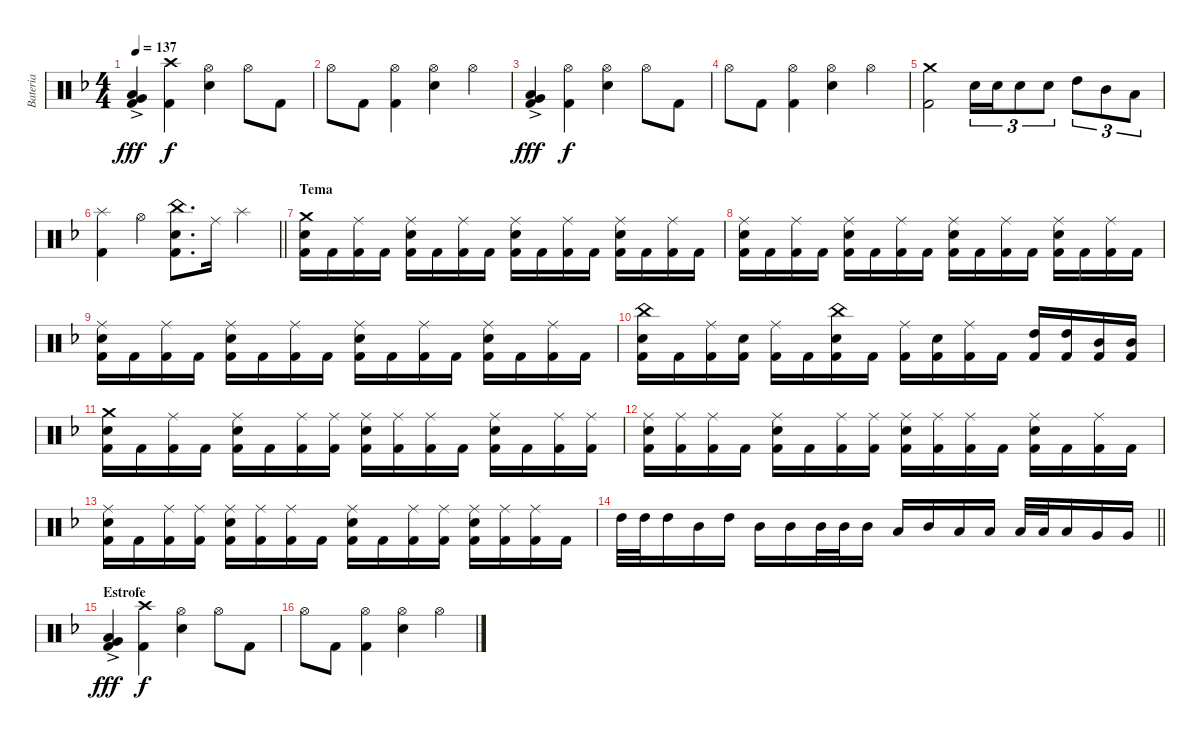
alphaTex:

\track ("Bateria" "Bateria") {instrument percussion}
\staff {score}
\articulation defaults
\ts (4 4)
\tempo 137
\clef neutral
\ks dminor
("Very Low Tom (hit)"{ac} "Low Tom (hit)"{ac} "Kick (hit) 2").4{dy fff} ("Crash high (hit)" "Kick (hit) 2").4{dy f} ("Hi-Hat (open)" "Electric Snare (hit)").4 "Hi-Hat (open)".8 "Kick (hit) 2".8 |
"Hi-Hat (open)".8 "Kick (hit) 2".8 ("Hi-Hat (open)" "Kick (hit) 2").4 ("Hi-Hat (open)" "Electric Snare (hit)").4 "Hi-Hat (open)".4 |
("Very Low Tom (hit)"{ac} "Low Tom (hit)"{ac} "Kick (hit) 2").4{dy fff} ("Hi-Hat (open)" "Kick (hit) 2").4{dy f} ("Hi-Hat (open)" "Electric Snare (hit)").4 "Hi-Hat (open)".8 "Kick (hit) 2".8 |
"Hi-Hat (open)".8 "Kick (hit) 2".8 ("Hi-Hat (open)" "Kick (hit) 2").4 ("Hi-Hat (open)" "Electric Snare (hit)").4 "Hi-Hat (open)".4 |
("Crash medium (hit)" "Kick (hit) 2").2 "Electric Snare (hit)".16{tu (3 2)} "Electric Snare (hit)".16{tu (3 2)} "Electric Snare (hit)".8{tu (3 2)} "Electric Snare (hit)".8{tu (3 2)} "High Tom (hit)".8{tu (3 2)} "Mid Tom (hit)".8{tu (3 2)} "Low Tom (hit)".8{tu (3 2)} |
\barLineRight lightlight
("Splash (hit)" "Kick (hit) 2").4 "Hi-Hat (open)".4 ("China (hit)" "Electric Snare (hit)" "Kick (hit) 2").8{d} "Ride (middle)".16 "Splash (hit)".4 |
\section ("" "Tema")
("Crash medium (hit)" "Electric Snare (hit)" "Kick (hit) 2").16 "Kick (hit) 2".16 ("Ride (middle)" "Kick (hit) 2").16 "Kick (hit) 2".16 ("Ride (middle)" "Electric Snare (hit)" "Kick (hit) 2").16 "Kick (hit) 2".16 ("Ride (middle)" "Kick (hit) 2").16 "Kick (hit) 2".16 ("Ride (middle)" "Electric Snare (hit)" "Kick (hit) 2").16 "Kick (hit) 2".16 ("Ride (middle)" "Kick (hit) 2").16 "Kick (hit) 2".16 ("Ride (middle)" "Electric Snare (hit)" "Kick (hit) 2").16 "Kick (hit) 2".16 ("Ride (middle)" "Kick (hit) 2").16 "Kick (hit) 2".16 |
("Ride (middle)" "Electric Snare (hit)" "Kick (hit) 2").16 "Kick (hit) 2".16 ("Ride (middle)" "Kick (hit) 2").16 "Kick (hit) 2".16 ("Ride (middle)" "Electric Snare (hit)" "Kick (hit) 2").16 "Kick (hit) 2".16 ("Ride (middle)" "Kick (hit) 2").16 "Kick (hit) 2".16 ("Ride (middle)" "Electric Snare (hit)" "Kick (hit) 2").16 "Kick (hit) 2".16 ("Ride (middle)" "Kick (hit) 2").16 "Kick (hit) 2".16 ("Ride (middle)" "Electric Snare (hit)" "Kick (hit) 2").16 "Kick (hit) 2".16 ("Ride (middle)" "Kick (hit) 2").16 "Kick (hit) 2".16 |
("Ride (middle)" "Electric Snare (hit)" "Kick (hit) 2").16 "Kick (hit) 2".16 ("Ride (middle)" "Kick (hit) 2").16 "Kick (hit) 2".16 ("Ride (middle)" "Electric Snare (hit)" "Kick (hit) 2").16 "Kick (hit) 2".16 ("Ride (middle)" "Kick (hit) 2").16 "Kick (hit) 2".16 ("Ride (middle)" "Electric Snare (hit)" "Kick (hit) 2").16 "Kick (hit) 2".16 ("Ride (middle)" "Kick (hit) 2").16 "Kick (hit) 2".16 ("Ride (middle)" "Electric Snare (hit)" "Kick (hit) 2").16 "Kick (hit) 2".16 ("Ride (middle)" "Kick (hit) 2").16 "Kick (hit) 2".16 |
("China (hit)" "Electric Snare (hit)" "Kick (hit) 2").16 "Kick (hit) 2".16 ("Ride (middle)" "Kick (hit) 2").16 ("Electric Snare (hit)" "Kick (hit) 2").16 ("Ride (middle)" "Kick (hit) 2").16 "Kick (hit) 2".16 ("China (hit)" "Electric Snare (hit)" "Kick (hit) 2").16 "Kick (hit) 2".16 ("Ride (middle)" "Kick (hit) 2").16 ("Electric Snare (hit)" "Kick (hit) 2").16 ("Ride (middle)" "Kick (hit) 2").16 "Kick (hit) 2".16 ("High Tom (hit)" "Kick (hit) 2").16 ("High Tom (hit)" "Kick (hit) 2").16 ("Mid Tom (hit)" "Kick (hit) 2").16 ("Mid Tom (hit)" "Kick (hit) 2").16 |
("Crash medium (hit)" "Electric Snare (hit)" "Kick (hit) 2").16 "Kick (hit) 2".16 ("Ride (middle)" "Kick (hit) 2").16 "Kick (hit) 2".16 ("Ride (middle)" "Electric Snare (hit)" "Kick (hit) 2").16 "Kick (hit) 2".16 ("Ride (middle)" "Kick (hit) 2").16 ("Ride (middle)" "Kick (hit) 2").16 ("Ride (middle)" "Electric Snare (hit)" "Kick (hit) 2").16 ("Ride (middle)" "Kick (hit) 2").16 ("Ride (middle)" "Kick (hit) 2").16 "Kick (hit) 2".16 ("Ride (middle)" "Electric Snare (hit)" "Kick (hit) 2").16 "Kick (hit) 2".16 ("Ride (middle)" "Kick (hit) 2").16 ("Ride (middle)" "Kick (hit) 2").16 |
("Ride (middle)" "Electric Snare (hit)" "Kick (hit) 2").16 ("Ride (middle)" "Kick (hit) 2").16 ("Ride (middle)" "Kick (hit) 2").16 "Kick (hit) 2".16 ("Ride (middle)" "Electric Snare (hit)" "Kick (hit) 2").16 "Kick (hit) 2".16 ("Ride (middle)" "Kick (hit) 2").16 ("Ride (middle)" "Kick (hit) 2").16 ("Ride (middle)" "Electric Snare (hit)" "Kick (hit) 2").16 ("Ride (middle)" "Kick (hit) 2").16 ("Ride (middle)" "Kick (hit) 2").16 "Kick (hit) 2".16 ("Ride (middle)" "Electric Snare (hit)" "Kick (hit) 2").16 "Kick (hit) 2".16 ("Ride (middle)" "Kick (hit) 2").16 "Kick (hit) 2".16 |
("Ride (middle)" "Electric Snare (hit)" "Kick (hit) 2").16 "Kick (hit) 2".16 ("Ride (middle)" "Kick (hit) 2").16 ("Ride (middle)" "Kick (hit) 2").16 ("Ride (middle)" "Electric Snare (hit)" "Kick (hit) 2").16 ("Ride (middle)" "Kick (hit) 2").16 ("Ride (middle)" "Kick (hit) 2").16 "Kick (hit) 2".16 ("Ride (middle)" "Electric Snare (hit)" "Kick (hit) 2").16 "Kick (hit) 2".16 ("Ride (middle)" "Kick (hit) 2").16 ("Ride (middle)" "Kick (hit) 2").16 ("Ride (middle)" "Electric Snare (hit)" "Kick (hit) 2").16 ("Ride (middle)" "Kick (hit) 2").16 ("Ride (middle)" "Kick (hit) 2").16 "Kick (hit) 2".16 |
\barLineRight lightlight "High Tom (hit)".32 "High Tom (hit)".32 "High Tom (hit)".16 "Mid Tom (hit)".16 "High Tom (hit)".16 "Mid Tom (hit)".16 "Mid Tom (hit)".16 "Mid Tom (hit)".32 "Mid Tom (hit)".32 "Mid Tom (hit)".16 "Low Tom (hit)".16 "Mid Tom (hit)".16 "Low Tom (hit)".16 "Low Tom (hit)".16 "Low Tom (hit)".32 "Low Tom (hit)".32 "Low Tom (hit)".16 "Very Low Tom (hit)".16 "Very Low Tom (hit)".16
|
\section ("" "Estrofe")
("Very Low Tom (hit)"{ac} "Low Tom (hit)"{ac} "Kick (hit) 2").4{dy fff} ("Crash high (hit)" "Kick (hit) 2").4{dy f} ("Hi-Hat (open)" "Electric Snare (hit)").4 "Hi-Hat (open)".8 "Kick (hit) 2".8 |
"Hi-Hat (open)".8 "Kick (hit) 2".8 ("Hi-Hat (open)" "Kick (hit) 2").4 ("Hi-Hat (open)" "Electric Snare (hit)").4 "Hi-Hat (open)".4
